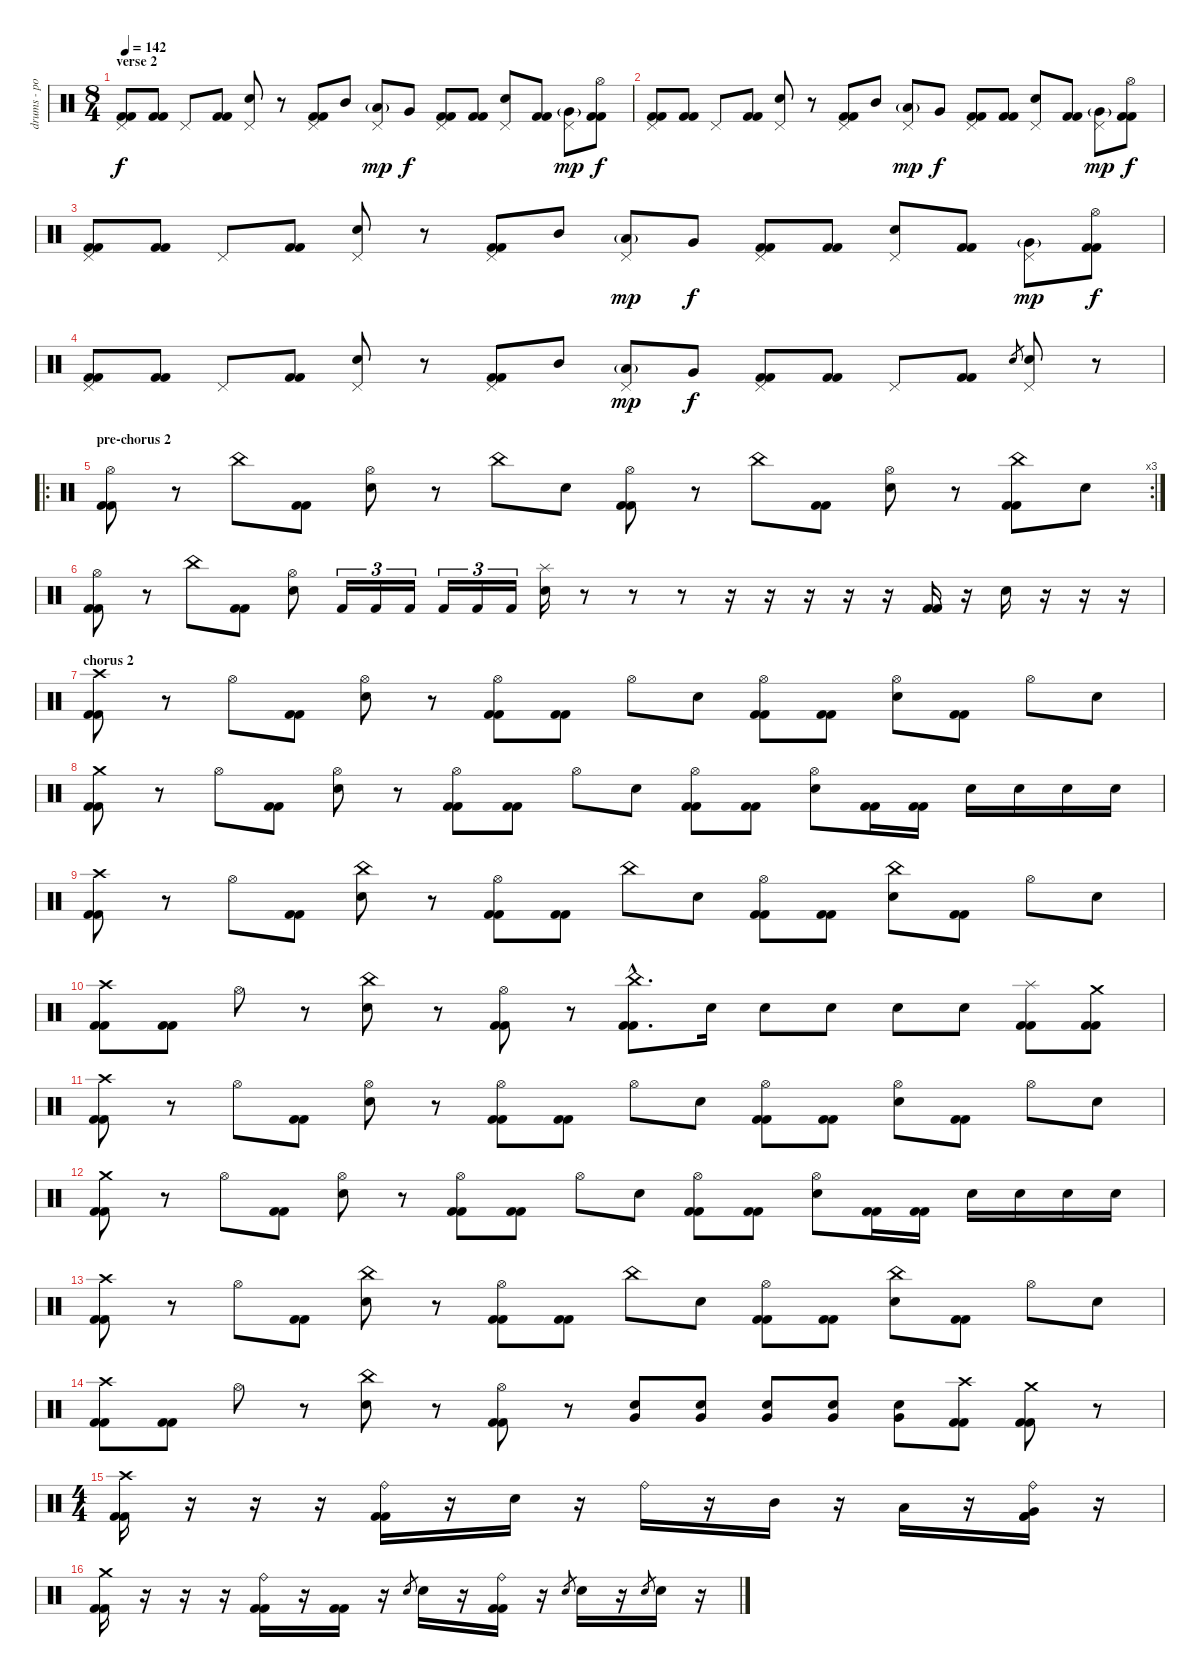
\track ("drums - portnoy" "drums - po") {instrument percussion}
\staff {score}
\articulation defaults
\ts (8 4)
\section ("" "verse 2")
\tempo 142
\clef neutral
\ks c
("Pedal Hi-Hat (hit)" "Kick (hit) 2" "Kick (hit) 2").8{dy f} ("Kick (hit) 2" "Kick (hit) 2").8 "Pedal Hi-Hat (hit)".8 ("Kick (hit) 2" "Kick (hit) 2").8 ("Pedal Hi-Hat (hit)" "Electric Snare (hit)").8 r.8 ("Pedal Hi-Hat (hit)" "Kick (hit) 2" "Kick (hit) 2").8 "Mid Tom (hit)".8 ("Pedal Hi-Hat (hit)" "Low Tom (hit)"{g}).8{dy mp} "Very Low Tom (hit)".8{dy f} ("Pedal Hi-Hat (hit)" "Kick (hit) 2" "Kick (hit) 2").8 ("Kick (hit) 2" "Kick (hit) 2").8 ("Pedal Hi-Hat (hit)" "Electric Snare (hit)").8 ("Kick (hit) 2" "Kick (hit) 2").8 ("Pedal Hi-Hat (hit)" "Very Low Tom (hit)"{g}).8{dy mp} ("Hi-Hat (open)" "Kick (hit) 2" "Kick (hit) 2").8{dy f} |
("Pedal Hi-Hat (hit)" "Kick (hit) 2" "Kick (hit) 2").8 ("Kick (hit) 2" "Kick (hit) 2").8 "Pedal Hi-Hat (hit)".8 ("Kick (hit) 2" "Kick (hit) 2").8 ("Pedal Hi-Hat (hit)" "Electric Snare (hit)").8 r.8 ("Pedal Hi-Hat (hit)" "Kick (hit) 2" "Kick (hit) 2").8 "Mid Tom (hit)".8 ("Pedal Hi-Hat (hit)" "Low Tom (hit)"{g}).8{dy mp} "Very Low Tom (hit)".8{dy f} ("Pedal Hi-Hat (hit)" "Kick (hit) 2" "Kick (hit) 2").8 ("Kick (hit) 2" "Kick (hit) 2").8 ("Pedal Hi-Hat (hit)" "Electric Snare (hit)").8 ("Kick (hit) 2" "Kick (hit) 2").8 ("Pedal Hi-Hat (hit)" "Very Low Tom (hit)"{g}).8{dy mp} ("Hi-Hat (open)" "Kick (hit) 2" "Kick (hit) 2").8{dy f} |
("Pedal Hi-Hat (hit)" "Kick (hit) 2" "Kick (hit) 2").8 ("Kick (hit) 2" "Kick (hit) 2").8 "Pedal Hi-Hat (hit)".8 ("Kick (hit) 2" "Kick (hit) 2").8 ("Pedal Hi-Hat (hit)" "Electric Snare (hit)").8 r.8 ("Pedal Hi-Hat (hit)" "Kick (hit) 2" "Kick (hit) 2").8 "Mid Tom (hit)".8 ("Pedal Hi-Hat (hit)" "Low Tom (hit)"{g}).8{dy mp} "Very Low Tom (hit)".8{dy f} ("Pedal Hi-Hat (hit)" "Kick (hit) 2" "Kick (hit) 2").8 ("Kick (hit) 2" "Kick (hit) 2").8 ("Pedal Hi-Hat (hit)" "Electric Snare (hit)").8 ("Kick (hit) 2" "Kick (hit) 2").8 ("Pedal Hi-Hat (hit)" "Very Low Tom (hit)"{g}).8{dy mp} ("Hi-Hat (open)" "Kick (hit) 2" "Kick (hit) 2").8{dy f} |
("Pedal Hi-Hat (hit)" "Kick (hit) 2" "Kick (hit) 2").8 ("Kick (hit) 2" "Kick (hit) 2").8 "Pedal Hi-Hat (hit)".8 ("Kick (hit) 2" "Kick (hit) 2").8 ("Pedal Hi-Hat (hit)" "Electric Snare (hit)").8 r.8 ("Pedal Hi-Hat (hit)" "Kick (hit) 2" "Kick (hit) 2").8 "Mid Tom (hit)".8 ("Pedal Hi-Hat (hit)" "Low Tom (hit)"{g}).8{dy mp} "Very Low Tom (hit)".8{dy f} ("Pedal Hi-Hat (hit)" "Kick (hit) 2" "Kick (hit) 2").8 ("Kick (hit) 2" "Kick (hit) 2").8 "Pedal Hi-Hat (hit)".8 ("Kick (hit) 2" "Kick (hit) 2").8 "Electric Snare (hit)".8{gr} ("Pedal Hi-Hat (hit)" "Electric Snare (hit)").8 r.8 |
\ro
\rc 3
\section ("" "pre-chorus 2")
("Hi-Hat (open)" "Kick (hit) 2" "Kick (hit) 2").8 r.8 "China (hit)".8 ("Kick (hit) 2" "Kick (hit) 2").8 ("Hi-Hat (open)" "Electric Snare (hit)").8 r.8 "China (hit)".8 "Electric Snare (hit)".8 ("Hi-Hat (open)" "Kick (hit) 2" "Kick (hit) 2").8 r.8 "China (hit)".8 ("Kick (hit) 2" "Kick (hit) 2").8 ("Hi-Hat (open)" "Electric Snare (hit)").8 r.8 ("China (hit)" "Kick (hit) 2" "Kick (hit) 2").8 "Electric Snare (hit)".8 |
("Hi-Hat (open)" "Kick (hit) 2" "Kick (hit) 2").8 r.8 "China (hit)".8 ("Kick (hit) 2" "Kick (hit) 2").8 ("Hi-Hat (open)" "Electric Snare (hit)").8 "Kick (hit) 2".16{tu (3 2)} "Kick (hit) 2".16{tu (3 2)} "Kick (hit) 2".16{tu (3 2)} "Kick (hit) 2".16{tu (3 2)} "Kick (hit) 2".16{tu (3 2)} "Kick (hit) 2".16{tu (3 2)} ("Splash (hit)" "Electric Snare (hit)").16 r.8 r.8 r.8 r.16 r.16 r.16 r.16 r.16 ("Kick (hit) 2" "Kick (hit) 2").16 r.16 "Electric Snare (hit)".16 r.16 r.16 r.16 |
\section ("" "chorus 2")
("Crash high (hit)" "Kick (hit) 2" "Kick (hit) 2").8 r.8 "Hi-Hat (open)".8 ("Kick (hit) 2" "Kick (hit) 2").8 ("Hi-Hat (open)" "Electric Snare (hit)").8 r.8 ("Hi-Hat (open)" "Kick (hit) 2" "Kick (hit) 2").8 ("Kick (hit) 2" "Kick (hit) 2").8 "Hi-Hat (open)".8 "Electric Snare (hit)".8 ("Hi-Hat (open)" "Kick (hit) 2" "Kick (hit) 2").8 ("Kick (hit) 2" "Kick (hit) 2").8 ("Hi-Hat (open)" "Electric Snare (hit)").8 ("Kick (hit) 2" "Kick (hit) 2").8 "Hi-Hat (open)".8 "Electric Snare (hit)".8 |
("Crash medium (hit)" "Kick (hit) 2" "Kick (hit) 2").8 r.8 "Hi-Hat (open)".8 ("Kick (hit) 2" "Kick (hit) 2").8 ("Hi-Hat (open)" "Electric Snare (hit)").8 r.8 ("Hi-Hat (open)" "Kick (hit) 2" "Kick (hit) 2").8 ("Kick (hit) 2" "Kick (hit) 2").8 "Hi-Hat (open)".8 "Electric Snare (hit)".8 ("Hi-Hat (open)" "Kick (hit) 2" "Kick (hit) 2").8 ("Kick (hit) 2" "Kick (hit) 2").8 ("Hi-Hat (open)" "Electric Snare (hit)").8 ("Kick (hit) 2" "Kick (hit) 2").16 ("Kick (hit) 2" "Kick (hit) 2").16 "Electric Snare (hit)".16 "Electric Snare (hit)".16 "Electric Snare (hit)".16 "Electric Snare (hit)".16 |
("Crash high (hit)" "Kick (hit) 2" "Kick (hit) 2").8 r.8 "Hi-Hat (open)".8 ("Kick (hit) 2" "Kick (hit) 2").8 ("China (hit)" "Electric Snare (hit)").8 r.8 ("Hi-Hat (open)" "Kick (hit) 2" "Kick (hit) 2").8 ("Kick (hit) 2" "Kick (hit) 2").8 "China (hit)".8 "Electric Snare (hit)".8 ("Hi-Hat (open)" "Kick (hit) 2" "Kick (hit) 2").8 ("Kick (hit) 2" "Kick (hit) 2").8 ("China (hit)" "Electric Snare (hit)").8 ("Kick (hit) 2" "Kick (hit) 2").8 "Hi-Hat (open)".8 "Electric Snare (hit)".8 |
("Crash high (hit)" "Kick (hit) 2" "Kick (hit) 2").8 ("Kick (hit) 2" "Kick (hit) 2").8 "Hi-Hat (open)".8 r.8 ("China (hit)" "Electric Snare (hit)").8 r.8 ("Hi-Hat (open)" "Kick (hit) 2" "Kick (hit) 2").8 r.8 ("China (hit)"{hac} "Kick (hit) 2"{hac} "Kick (hit) 2"{hac}).8{d} "Electric Snare (hit)".16 "Electric Snare (hit)".8 "Electric Snare (hit)".8 "Electric Snare (hit)".8 "Electric Snare (hit)".8 ("Splash (hit)" "Kick (hit) 2" "Kick (hit) 2").8 ("Crash medium (hit)" "Kick (hit) 2" "Kick (hit) 2").8 |
("Crash high (hit)" "Kick (hit) 2" "Kick (hit) 2").8 r.8 "Hi-Hat (open)".8 ("Kick (hit) 2" "Kick (hit) 2").8 ("Hi-Hat (open)" "Electric Snare (hit)").8 r.8 ("Hi-Hat (open)" "Kick (hit) 2" "Kick (hit) 2").8 ("Kick (hit) 2" "Kick (hit) 2").8 "Hi-Hat (open)".8 "Electric Snare (hit)".8 ("Hi-Hat (open)" "Kick (hit) 2" "Kick (hit) 2").8 ("Kick (hit) 2" "Kick (hit) 2").8 ("Hi-Hat (open)" "Electric Snare (hit)").8 ("Kick (hit) 2" "Kick (hit) 2").8 "Hi-Hat (open)".8 "Electric Snare (hit)".8 |
("Crash medium (hit)" "Kick (hit) 2" "Kick (hit) 2").8 r.8 "Hi-Hat (open)".8 ("Kick (hit) 2" "Kick (hit) 2").8 ("Hi-Hat (open)" "Electric Snare (hit)").8 r.8 ("Hi-Hat (open)" "Kick (hit) 2" "Kick (hit) 2").8 ("Kick (hit) 2" "Kick (hit) 2").8 "Hi-Hat (open)".8 "Electric Snare (hit)".8 ("Hi-Hat (open)" "Kick (hit) 2" "Kick (hit) 2").8 ("Kick (hit) 2" "Kick (hit) 2").8 ("Hi-Hat (open)" "Electric Snare (hit)").8 ("Kick (hit) 2" "Kick (hit) 2").16 ("Kick (hit) 2" "Kick (hit) 2").16 "Electric Snare (hit)".16 "Electric Snare (hit)".16 "Electric Snare (hit)".16 "Electric Snare (hit)".16 |
("Crash high (hit)" "Kick (hit) 2" "Kick (hit) 2").8 r.8 "Hi-Hat (open)".8 ("Kick (hit) 2" "Kick (hit) 2").8 ("China (hit)" "Electric Snare (hit)").8 r.8 ("Hi-Hat (open)" "Kick (hit) 2" "Kick (hit) 2").8 ("Kick (hit) 2" "Kick (hit) 2").8 "China (hit)".8 "Electric Snare (hit)".8 ("Hi-Hat (open)" "Kick (hit) 2" "Kick (hit) 2").8 ("Kick (hit) 2" "Kick (hit) 2").8 ("China (hit)" "Electric Snare (hit)").8 ("Kick (hit) 2" "Kick (hit) 2").8 "Hi-Hat (open)".8 "Electric Snare (hit)".8 |
("Crash high (hit)" "Kick (hit) 2" "Kick (hit) 2").8 ("Kick (hit) 2" "Kick (hit) 2").8 "Hi-Hat (open)".8 r.8 ("China (hit)" "Electric Snare (hit)").8 r.8 ("Hi-Hat (open)" "Kick (hit) 2" "Kick (hit) 2").8 r.8 ("Electric Snare (hit)" "Very Low Tom (hit)").8 ("Electric Snare (hit)" "Very Low Tom (hit)").8 ("Electric Snare (hit)" "Very Low Tom (hit)").8 ("Electric Snare (hit)" "Very Low Tom (hit)").8 ("Electric Snare (hit)" "Very Low Tom (hit)").8 ("Crash high (hit)" "Kick (hit) 2" "Kick (hit) 2").8 ("Crash medium (hit)" "Kick (hit) 2" "Kick (hit) 2").8 r.8 |
\ts (4 4)
("Crash high (hit)" "Kick (hit) 2" "Kick (hit) 2").16 r.16 r.16 r.16 ("Ride (bell)" "Kick (hit) 2" "Kick (hit) 2").16 r.16 "Electric Snare (hit)".16 r.16 "Ride (bell)".16 r.16 "Mid Tom (hit)".16 r.16 "Low Tom (hit)".16 r.16 ("Ride (bell)" "Very Low Tom (hit)" "Kick (hit) 2" "Kick (hit) 2").16 r.16 |
("Crash medium (hit)" "Kick (hit) 2" "Kick (hit) 2").16 r.16 r.16 r.16 ("Ride (bell)" "Kick (hit) 2" "Kick (hit) 2").16 r.16 ("Kick (hit) 2" "Kick (hit) 2").16 r.16 "Electric Snare (hit)".8{gr} "Electric Snare (hit)".16 r.16 ("Ride (bell)" "Kick (hit) 2" "Kick (hit) 2").16 r.16 "Electric Snare (hit)".8{gr} "Electric Snare (hit)".16 r.16 "Electric Snare (hit)".8{gr} "Electric Snare (hit)".16 r.16
